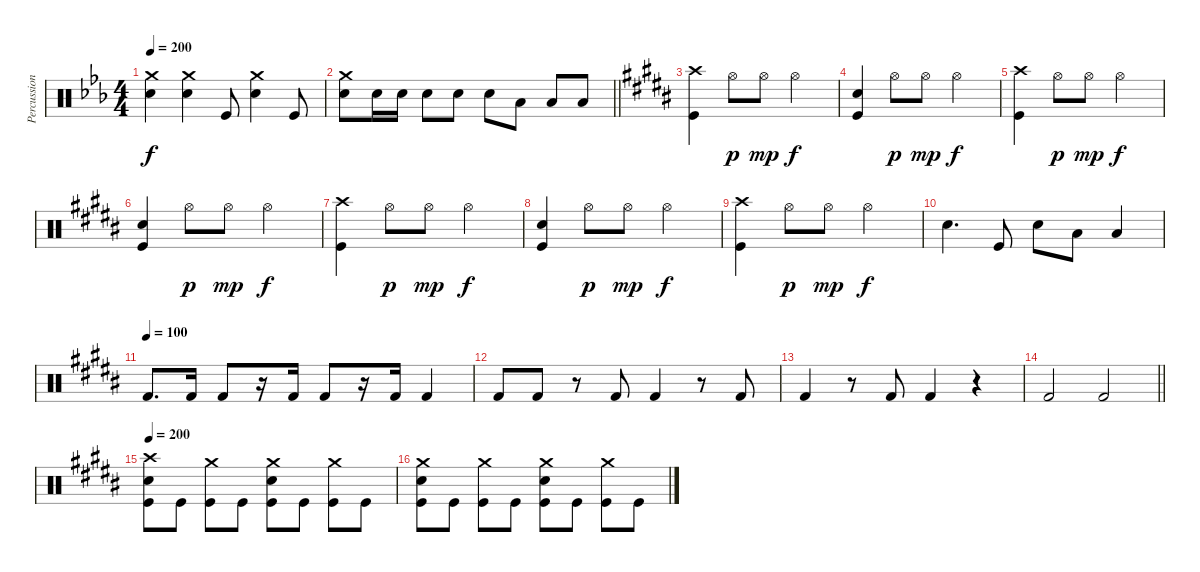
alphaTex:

\track ("Percussion" "Percussion") {instrument percussion}
\staff {score}
\articulation defaults
\ts (4 4)
\tempo 200
\clef neutral
\ks eb
("Crash medium (hit)" "Snare (hit) 2").4{dy f} ("Crash medium (hit)" "Snare (hit) 2").4 "Kick (hit)".8 ("Crash medium (hit)" "Snare (hit) 2").4 "Kick (hit)".8 |
\barLineRight lightlight
("Crash medium (hit)" "Snare (hit) 2").8 "Snare (hit) 2".16 "Snare (hit) 2".16 "Snare (hit) 2".8 "Snare (hit) 2".8 "Snare (hit) 2".8 "Low Tom (hit)".8 "Low Tom (hit)".8 "Low Floor Tom (hit)".8 |
\ks b
("Crash high (hit)" "Kick (hit)").4 "Hi-Hat (open)".8{dy p} "Hi-Hat (open)".8{dy mp} "Hi-Hat (open)".2{dy f} |
("Snare (hit) 2" "Kick (hit)").4 "Hi-Hat (open)".8{dy p} "Hi-Hat (open)".8{dy mp} "Hi-Hat (open)".2{dy f} |
("Crash high (hit)" "Kick (hit)").4 "Hi-Hat (open)".8{dy p} "Hi-Hat (open)".8{dy mp} "Hi-Hat (open)".2{dy f} |
("Snare (hit) 2" "Kick (hit)").4 "Hi-Hat (open)".8{dy p} "Hi-Hat (open)".8{dy mp} "Hi-Hat (open)".2{dy f} |
("Crash high (hit)" "Kick (hit)").4 "Hi-Hat (open)".8{dy p} "Hi-Hat (open)".8{dy mp} "Hi-Hat (open)".2{dy f} |
("Snare (hit) 2" "Kick (hit)").4 "Hi-Hat (open)".8{dy p} "Hi-Hat (open)".8{dy mp} "Hi-Hat (open)".2{dy f} |
("Crash high (hit)" "Kick (hit)").4 "Hi-Hat (open)".8{dy p} "Hi-Hat (open)".8{dy mp} "Hi-Hat (open)".2{dy f} |
"Snare (hit) 2".4{d} "Kick (hit)".8 "Snare (hit) 2".8 "Low Tom (hit)".8 "Low Floor Tom (hit)".4 |
\tempo (100)
"Kick (hit) 2".8{d volume 7} "Kick (hit) 2".16 "Kick (hit) 2".8 r.16 "Kick (hit) 2".16 "Kick (hit) 2".8 r.16 "Kick (hit) 2".16 "Kick (hit) 2".4 |
"Kick (hit) 2".8 "Kick (hit) 2".8 r.8 "Kick (hit) 2".8 "Kick (hit) 2".4 r.8 "Kick (hit) 2".8 |
"Kick (hit) 2".4 r.8 "Kick (hit) 2".8 "Kick (hit) 2".4 r.4 |
\barLineRight lightlight "Kick (hit) 2".2 "Kick (hit) 2".2
|
\tempo 200
("Crash high (hit)" "Snare (hit) 2" "Kick (hit)").8{volume 16} "Kick (hit)".8 ("Crash medium (hit)" "Kick (hit)").8 "Kick (hit)".8 ("Crash medium (hit)" "Snare (hit) 2" "Kick (hit)").8 "Kick (hit)".8 ("Crash medium (hit)" "Kick (hit)").8 "Kick (hit)".8 |
("Crash medium (hit)" "Snare (hit) 2" "Kick (hit)").8 "Kick (hit)".8 ("Crash medium (hit)" "Kick (hit)").8 "Kick (hit)".8 ("Crash medium (hit)" "Snare (hit) 2" "Kick (hit)").8 "Kick (hit)".8 ("Crash medium (hit)" "Kick (hit)").8 "Kick (hit)".8
